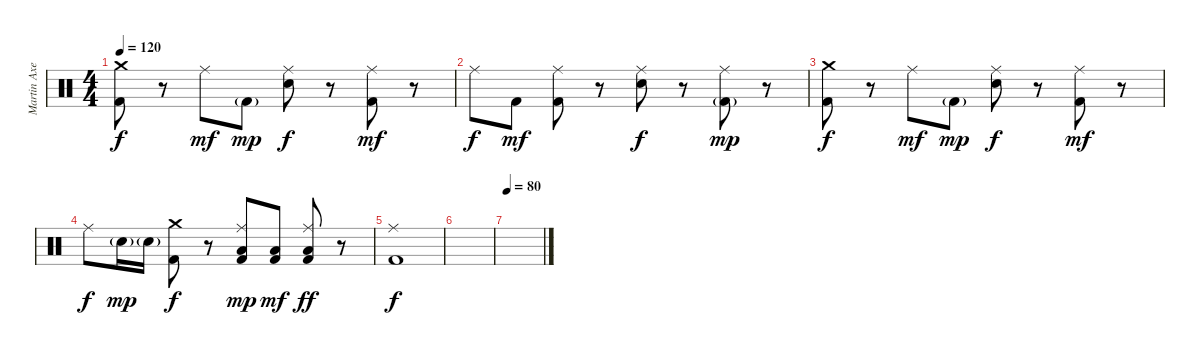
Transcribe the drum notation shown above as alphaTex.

\track ("Martin Axenrot - Drums" "Martin Axe") {instrument percussion}
\staff {score}
\articulation defaults
\ts (4 4)
\tempo 120
\clef neutral
\ks c
("Crash medium (hit)" "Kick (hit) 2").8{dy f} r.8 "Ride (middle)".8{dy mf} "Kick (hit) 2"{g}.8{dy mp} ("Ride (middle)" "Snare (hit) 2").8{dy f} r.8 ("Ride (middle)" "Kick (hit) 2").8{dy mf} r.8 |
"Ride (middle)".8{dy f} "Kick (hit) 2".8{dy mf} ("Ride (middle)" "Kick (hit) 2").8 r.8 ("Ride (middle)" "Snare (hit) 2").8{dy f} r.8 ("Ride (middle)" "Kick (hit) 2"{g}).8{dy mp} r.8 |
("Crash medium (hit)" "Kick (hit) 2").8{dy f} r.8 "Ride (middle)".8{dy mf} "Kick (hit) 2"{g}.8{dy mp} ("Ride (middle)" "Snare (hit) 2").8{dy f} r.8 ("Ride (middle)" "Kick (hit) 2").8{dy mf} r.8 |
"Ride (middle)".8{dy f} "Snare (hit) 2"{g}.16{dy mp} "Snare (hit) 2"{g}.16 ("Crash medium (hit)" "Kick (hit) 2").8{dy f} r.8 ("Ride (middle)" "Low Floor Tom (hit)" "Kick (hit) 2").8{dy mp} ("Low Floor Tom (hit)" "Kick (hit) 2").8{dy mf} ("Ride (middle)" "Low Floor Tom (hit)" "Kick (hit) 2").8{dy ff} r.8 |
("Ride (middle)" "Kick (hit) 2").1{dy f} |
|
\tempo 80
